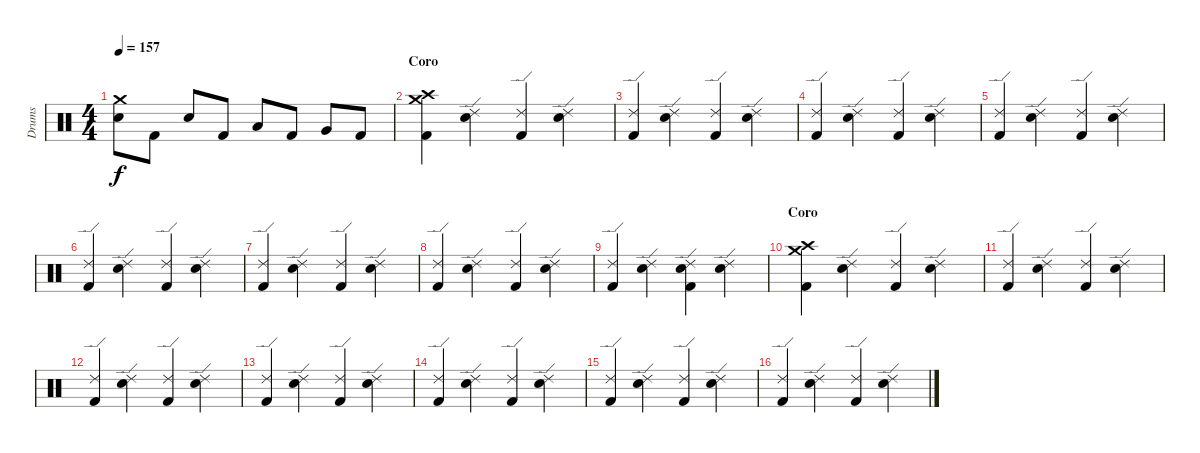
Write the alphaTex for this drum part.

\track ("Drums" "Drums") {instrument percussion}
\staff {score}
\articulation defaults
\ts (4 4)
\tempo 157
\clef neutral
\ks c
("Crash medium (hit)" "Electric Snare (hit)").8{dy f} "Kick (hit) 2".8 "Electric Snare (hit)".8 "Kick (hit) 2".8 "Low Tom (hit)".8 "Kick (hit) 2".8 "Very Low Tom (hit)".8 "Kick (hit) 2".8 |
\section ("" "Coro")
("Crash medium (hit)" "Crash high (hit)" "Kick (hit) 2").4 ("Ride (edge) 2" "Electric Snare (hit)").4 ("Ride (edge) 2" "Kick (hit) 2").4 ("Ride (edge) 2" "Electric Snare (hit)").4 |
("Ride (edge) 2" "Kick (hit) 2").4 ("Ride (edge) 2" "Electric Snare (hit)").4 ("Ride (edge) 2" "Kick (hit) 2").4 ("Ride (edge) 2" "Electric Snare (hit)").4 |
("Ride (edge) 2" "Kick (hit) 2").4 ("Ride (edge) 2" "Electric Snare (hit)").4 ("Ride (edge) 2" "Kick (hit) 2").4 ("Ride (edge) 2" "Electric Snare (hit)").4 |
("Ride (edge) 2" "Kick (hit) 2").4 ("Ride (edge) 2" "Electric Snare (hit)").4 ("Ride (edge) 2" "Kick (hit) 2").4 ("Ride (edge) 2" "Electric Snare (hit)").4 |
("Ride (edge) 2" "Kick (hit) 2").4 ("Ride (edge) 2" "Electric Snare (hit)").4 ("Ride (edge) 2" "Kick (hit) 2").4 ("Ride (edge) 2" "Electric Snare (hit)").4 |
("Ride (edge) 2" "Kick (hit) 2").4 ("Ride (edge) 2" "Electric Snare (hit)").4 ("Ride (edge) 2" "Kick (hit) 2").4 ("Ride (edge) 2" "Electric Snare (hit)").4 |
("Ride (edge) 2" "Kick (hit) 2").4 ("Ride (edge) 2" "Electric Snare (hit)").4 ("Ride (edge) 2" "Kick (hit) 2").4 ("Ride (edge) 2" "Electric Snare (hit)").4 |
("Ride (edge) 2" "Kick (hit) 2").4 ("Ride (edge) 2" "Electric Snare (hit)").4 ("Ride (edge) 2" "Electric Snare (hit)" "Kick (hit) 2").4 ("Ride (edge) 2" "Electric Snare (hit)").4 |
\section ("" "Coro")
("Crash medium (hit)" "Crash high (hit)" "Kick (hit) 2").4 ("Ride (edge) 2" "Electric Snare (hit)").4 ("Ride (edge) 2" "Kick (hit) 2").4 ("Ride (edge) 2" "Electric Snare (hit)").4 |
("Ride (edge) 2" "Kick (hit) 2").4 ("Ride (edge) 2" "Electric Snare (hit)").4 ("Ride (edge) 2" "Kick (hit) 2").4 ("Ride (edge) 2" "Electric Snare (hit)").4 |
("Ride (edge) 2" "Kick (hit) 2").4 ("Ride (edge) 2" "Electric Snare (hit)").4 ("Ride (edge) 2" "Kick (hit) 2").4 ("Ride (edge) 2" "Electric Snare (hit)").4 |
("Ride (edge) 2" "Kick (hit) 2").4 ("Ride (edge) 2" "Electric Snare (hit)").4 ("Ride (edge) 2" "Kick (hit) 2").4 ("Ride (edge) 2" "Electric Snare (hit)").4 |
("Ride (edge) 2" "Kick (hit) 2").4 ("Ride (edge) 2" "Electric Snare (hit)").4 ("Ride (edge) 2" "Kick (hit) 2").4 ("Ride (edge) 2" "Electric Snare (hit)").4 |
("Ride (edge) 2" "Kick (hit) 2").4 ("Ride (edge) 2" "Electric Snare (hit)").4 ("Ride (edge) 2" "Kick (hit) 2").4 ("Ride (edge) 2" "Electric Snare (hit)").4 |
("Ride (edge) 2" "Kick (hit) 2").4 ("Ride (edge) 2" "Electric Snare (hit)").4 ("Ride (edge) 2" "Kick (hit) 2").4 ("Ride (edge) 2" "Electric Snare (hit)").4
